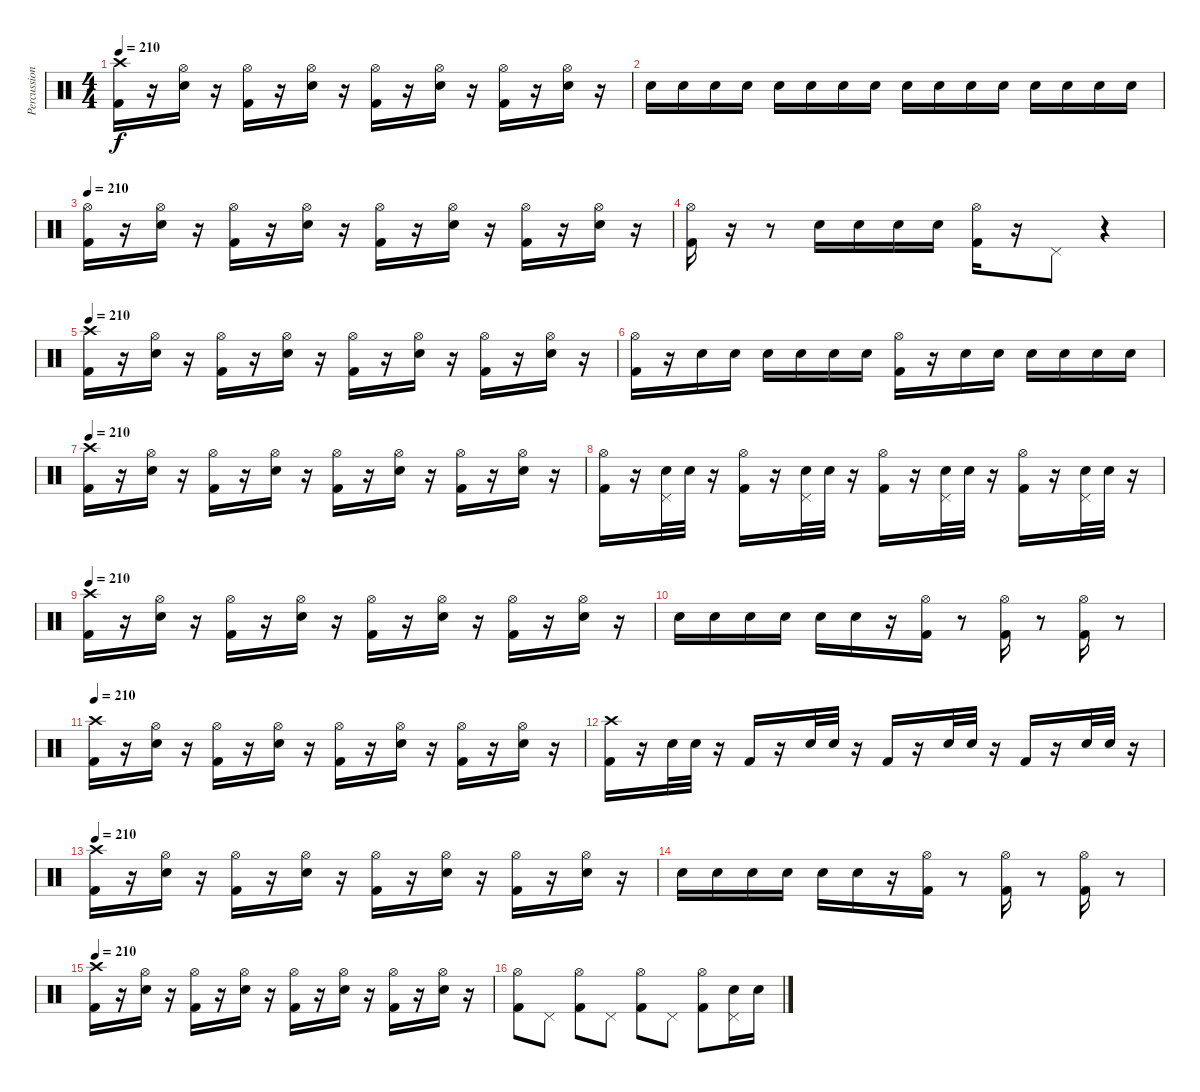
\track ("Percussioni" "Percussion") {instrument percussion}
\staff {score}
\articulation defaults
\ts (4 4)
\tempo 210
\clef neutral
\ks c
("Kick (hit) 2" "Crash high (hit)").16{dy f} r.16 ("Snare (hit) 2" "Hi-Hat (open)").16 r.16 ("Kick (hit) 2" "Hi-Hat (open)").16 r.16 ("Snare (hit) 2" "Hi-Hat (open)").16 r.16 ("Kick (hit) 2" "Hi-Hat (open)").16 r.16 ("Snare (hit) 2" "Hi-Hat (open)").16 r.16 ("Kick (hit) 2" "Hi-Hat (open)").16 r.16 ("Snare (hit) 2" "Hi-Hat (open)").16 r.16 |
"Snare (hit) 2".16 "Snare (hit) 2".16 "Snare (hit) 2".16 "Snare (hit) 2".16 "Snare (hit) 2".16 "Snare (hit) 2".16 "Snare (hit) 2".16 "Snare (hit) 2".16 "Snare (hit) 2".16 "Snare (hit) 2".16 "Snare (hit) 2".16 "Snare (hit) 2".16 "Snare (hit) 2".16 "Snare (hit) 2".16 "Snare (hit) 2".16 "Snare (hit) 2".16 |
\tempo 210
("Kick (hit) 2" "Hi-Hat (open)").16 r.16 ("Snare (hit) 2" "Hi-Hat (open)").16 r.16 ("Kick (hit) 2" "Hi-Hat (open)").16 r.16 ("Snare (hit) 2" "Hi-Hat (open)").16 r.16 ("Kick (hit) 2" "Hi-Hat (open)").16 r.16 ("Snare (hit) 2" "Hi-Hat (open)").16 r.16 ("Kick (hit) 2" "Hi-Hat (open)").16 r.16 ("Snare (hit) 2" "Hi-Hat (open)").16 r.16 |
("Kick (hit) 2" "Hi-Hat (open)").16 r.16 r.8 "Snare (hit) 2".16 "Snare (hit) 2".16 "Snare (hit) 2".16 "Snare (hit) 2".16 ("Hi-Hat (open)" "Kick (hit) 2").16 r.16 "Pedal Hi-Hat (hit)".8 r.4 |
\tempo 210
("Kick (hit) 2" "Crash high (hit)").16 r.16 ("Snare (hit) 2" "Hi-Hat (open)").16 r.16 ("Kick (hit) 2" "Hi-Hat (open)").16 r.16 ("Snare (hit) 2" "Hi-Hat (open)").16 r.16 ("Kick (hit) 2" "Hi-Hat (open)").16 r.16 ("Snare (hit) 2" "Hi-Hat (open)").16 r.16 ("Kick (hit) 2" "Hi-Hat (open)").16 r.16 ("Snare (hit) 2" "Hi-Hat (open)").16 r.16 |
("Kick (hit) 2" "Hi-Hat (open)").16 r.16 "Snare (hit) 2".16 "Snare (hit) 2".16 "Snare (hit) 2".16 "Snare (hit) 2".16 "Snare (hit) 2".16 "Snare (hit) 2".16 ("Kick (hit) 2" "Hi-Hat (open)").16 r.16 "Snare (hit) 2".16 "Snare (hit) 2".16 "Snare (hit) 2".16 "Snare (hit) 2".16 "Snare (hit) 2".16 "Snare (hit) 2".16 |
\tempo 210
("Kick (hit) 2" "Crash high (hit)").16 r.16 ("Snare (hit) 2" "Hi-Hat (open)").16 r.16 ("Kick (hit) 2" "Hi-Hat (open)").16 r.16 ("Snare (hit) 2" "Hi-Hat (open)").16 r.16 ("Kick (hit) 2" "Hi-Hat (open)").16 r.16 ("Snare (hit) 2" "Hi-Hat (open)").16 r.16 ("Kick (hit) 2" "Hi-Hat (open)").16 r.16 ("Snare (hit) 2" "Hi-Hat (open)").16 r.16 |
("Hi-Hat (open)" "Kick (hit) 2").16 r.16 ("Pedal Hi-Hat (hit)" "Snare (hit) 2").32 "Snare (hit) 2".32 r.16 ("Hi-Hat (open)" "Kick (hit) 2").16 r.16 ("Pedal Hi-Hat (hit)" "Snare (hit) 2").32 "Snare (hit) 2".32 r.16 ("Hi-Hat (open)" "Kick (hit) 2").16 r.16 ("Pedal Hi-Hat (hit)" "Snare (hit) 2").32 "Snare (hit) 2".32 r.16 ("Hi-Hat (open)" "Kick (hit) 2").16 r.16 ("Pedal Hi-Hat (hit)" "Snare (hit) 2").32 "Snare (hit) 2".32 r.16 |
\tempo 210
("Kick (hit) 2" "Crash high (hit)").16 r.16 ("Snare (hit) 2" "Hi-Hat (open)").16 r.16 ("Kick (hit) 2" "Hi-Hat (open)").16 r.16 ("Snare (hit) 2" "Hi-Hat (open)").16 r.16 ("Kick (hit) 2" "Hi-Hat (open)").16 r.16 ("Snare (hit) 2" "Hi-Hat (open)").16 r.16 ("Kick (hit) 2" "Hi-Hat (open)").16 r.16 ("Snare (hit) 2" "Hi-Hat (open)").16 r.16 |
"Snare (hit) 2".16 "Snare (hit) 2".16 "Snare (hit) 2".16 "Snare (hit) 2".16 "Snare (hit) 2".16 "Snare (hit) 2".16 r.16 ("Hi-Hat (open)" "Kick (hit) 2").16 r.8 ("Hi-Hat (open)" "Kick (hit) 2").16 r.8 ("Hi-Hat (open)" "Kick (hit) 2").16 r.8 |
\tempo 210
("Kick (hit) 2" "Crash high (hit)").16 r.16 ("Snare (hit) 2" "Hi-Hat (open)").16 r.16 ("Kick (hit) 2" "Hi-Hat (open)").16 r.16 ("Snare (hit) 2" "Hi-Hat (open)").16 r.16 ("Kick (hit) 2" "Hi-Hat (open)").16 r.16 ("Snare (hit) 2" "Hi-Hat (open)").16 r.16 ("Kick (hit) 2" "Hi-Hat (open)").16 r.16 ("Snare (hit) 2" "Hi-Hat (open)").16 r.16 |
("Crash high (hit)" "Kick (hit) 2").16 r.16 "Snare (hit) 2".32 "Snare (hit) 2".32 r.16 "Kick (hit) 2".16 r.16 "Snare (hit) 2".32 "Snare (hit) 2".32 r.16 "Kick (hit) 2".16 r.16 "Snare (hit) 2".32 "Snare (hit) 2".32 r.16 "Kick (hit) 2".16 r.16 "Snare (hit) 2".32 "Snare (hit) 2".32 r.16 |
\tempo 210
("Kick (hit) 2" "Crash high (hit)").16 r.16 ("Snare (hit) 2" "Hi-Hat (open)").16 r.16 ("Kick (hit) 2" "Hi-Hat (open)").16 r.16 ("Snare (hit) 2" "Hi-Hat (open)").16 r.16 ("Kick (hit) 2" "Hi-Hat (open)").16 r.16 ("Snare (hit) 2" "Hi-Hat (open)").16 r.16 ("Kick (hit) 2" "Hi-Hat (open)").16 r.16 ("Snare (hit) 2" "Hi-Hat (open)").16 r.16 |
"Snare (hit) 2".16 "Snare (hit) 2".16 "Snare (hit) 2".16 "Snare (hit) 2".16 "Snare (hit) 2".16 "Snare (hit) 2".16 r.16 ("Hi-Hat (open)" "Kick (hit) 2").16 r.8 ("Hi-Hat (open)" "Kick (hit) 2").16 r.8 ("Hi-Hat (open)" "Kick (hit) 2").16 r.8 |
\tempo 210
("Kick (hit) 2" "Crash high (hit)").16 r.16 ("Snare (hit) 2" "Hi-Hat (open)").16 r.16 ("Kick (hit) 2" "Hi-Hat (open)").16 r.16 ("Snare (hit) 2" "Hi-Hat (open)").16 r.16 ("Kick (hit) 2" "Hi-Hat (open)").16 r.16 ("Snare (hit) 2" "Hi-Hat (open)").16 r.16 ("Kick (hit) 2" "Hi-Hat (open)").16 r.16 ("Snare (hit) 2" "Hi-Hat (open)").16 r.16 |
("Hi-Hat (open)" "Kick (hit) 2").8 "Pedal Hi-Hat (hit)".8 ("Hi-Hat (open)" "Kick (hit) 2").8 "Pedal Hi-Hat (hit)".8 ("Hi-Hat (open)" "Kick (hit) 2").8 "Pedal Hi-Hat (hit)".8 ("Hi-Hat (open)" "Kick (hit) 2").8 ("Pedal Hi-Hat (hit)" "Snare (hit) 2").16 "Snare (hit) 2".16
